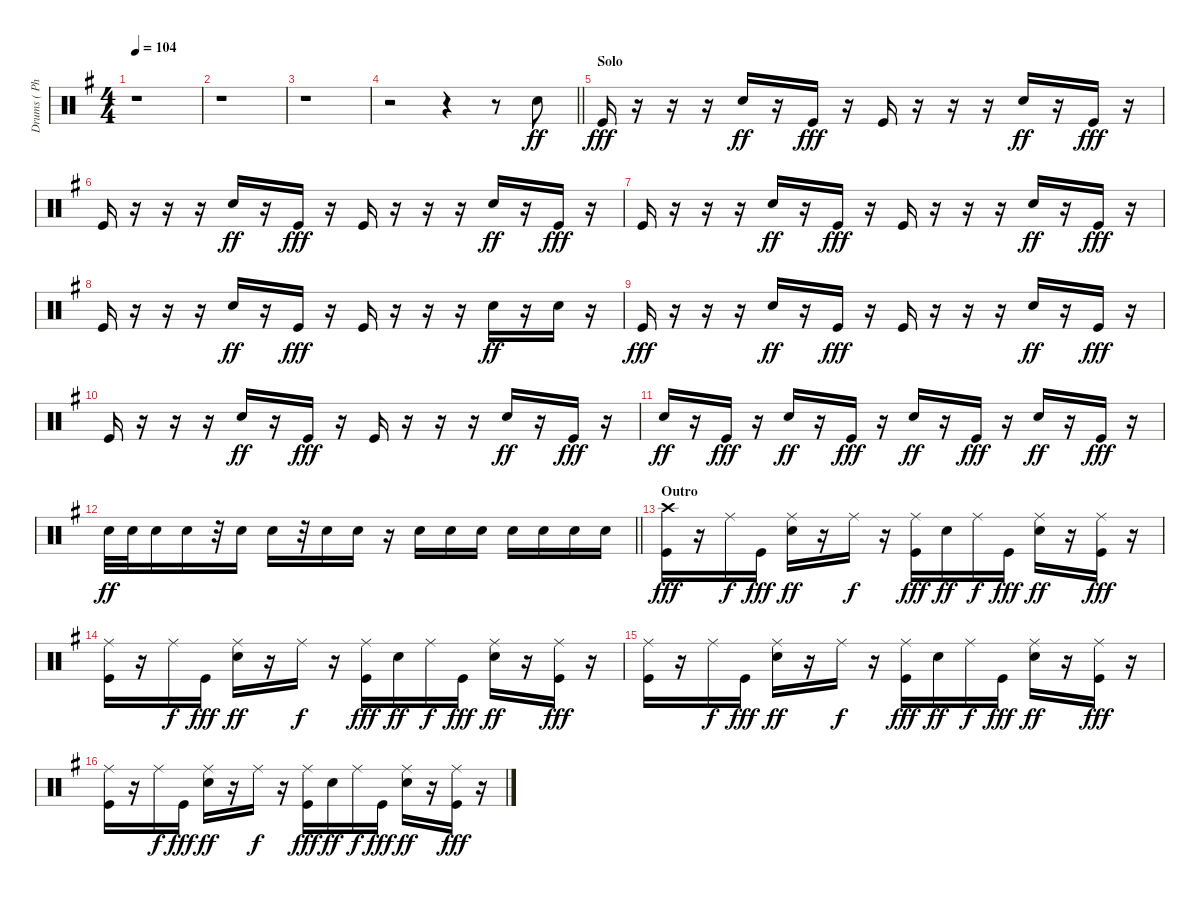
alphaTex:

\track ("Drums ( Phillip Selway )" "Drums ( Ph") {instrument percussion}
\staff {score}
\articulation defaults
\ts (4 4)
\tempo 104
\clef neutral
\ks eminor
r.1{dy fff} |
r.1 |
r.1 |
\barLineRight lightlight
r.2 r.4 r.8 "Electric Snare (hit)".8{dy ff} |
\section ("" "Solo")
"Kick (hit)".16{dy fff} r.16 r.16 r.16 "Electric Snare (hit)".16{dy ff} r.16 "Kick (hit)".16{dy fff} r.16 "Kick (hit)".16 r.16 r.16 r.16 "Electric Snare (hit)".16{dy ff} r.16 "Kick (hit)".16{dy fff} r.16 |
"Kick (hit)".16 r.16 r.16 r.16 "Electric Snare (hit)".16{dy ff} r.16 "Kick (hit)".16{dy fff} r.16 "Kick (hit)".16 r.16 r.16 r.16 "Electric Snare (hit)".16{dy ff} r.16 "Kick (hit)".16{dy fff} r.16 |
"Kick (hit)".16 r.16 r.16 r.16 "Electric Snare (hit)".16{dy ff} r.16 "Kick (hit)".16{dy fff} r.16 "Kick (hit)".16 r.16 r.16 r.16 "Electric Snare (hit)".16{dy ff} r.16 "Kick (hit)".16{dy fff} r.16 |
"Kick (hit)".16 r.16 r.16 r.16 "Electric Snare (hit)".16{dy ff} r.16 "Kick (hit)".16{dy fff} r.16 "Kick (hit)".16 r.16 r.16 r.16 "Electric Snare (hit)".16{dy ff} r.16 "Electric Snare (hit)".16 r.16 |
"Kick (hit)".16{dy fff} r.16 r.16 r.16 "Electric Snare (hit)".16{dy ff} r.16 "Kick (hit)".16{dy fff} r.16 "Kick (hit)".16 r.16 r.16 r.16 "Electric Snare (hit)".16{dy ff} r.16 "Kick (hit)".16{dy fff} r.16 |
"Kick (hit)".16 r.16 r.16 r.16 "Electric Snare (hit)".16{dy ff} r.16 "Kick (hit)".16{dy fff} r.16 "Kick (hit)".16 r.16 r.16 r.16 "Electric Snare (hit)".16{dy ff} r.16 "Kick (hit)".16{dy fff} r.16 |
"Electric Snare (hit)".16{dy ff} r.16 "Kick (hit)".16{dy fff} r.16 "Electric Snare (hit)".16{dy ff} r.16 "Kick (hit)".16{dy fff} r.16 "Electric Snare (hit)".16{dy ff} r.16 "Kick (hit)".16{dy fff} r.16 "Electric Snare (hit)".16{dy ff} r.16 "Kick (hit)".16{dy fff} r.16 |
\barLineRight lightlight "Electric Snare (hit)".32{dy ff} "Electric Snare (hit)".32 "Electric Snare (hit)".16 "Electric Snare (hit)".16
r.32 "Electric Snare (hit)".16 "Electric Snare (hit)".16 r.32 "Electric Snare (hit)".16 "Electric Snare (hit)".16 r.16 "Electric Snare (hit)".16 "Electric Snare (hit)".16 "Electric Snare (hit)".16 "Electric Snare (hit)".16 "Electric Snare (hit)".16 "Electric Snare (hit)".16 "Electric Snare (hit)".16 |
\section ("" "Outro")
("Crash high (hit)" "Kick (hit)").16{dy fff} r.16 "Ride (middle)".16{dy f} "Kick (hit)".16{dy fff} ("Ride (middle)" "Electric Snare (hit)").16{dy ff} r.16 "Ride (middle)".16{dy f} r.16 ("Ride (middle)" "Kick (hit)").16{dy fff} "Electric Snare (hit)".16{dy ff} "Ride (middle)".16{dy f} "Kick (hit)".16{dy fff} ("Ride (middle)" "Electric Snare (hit)").16{dy ff} r.16 ("Ride (middle)" "Kick (hit)").16{dy fff} r.16 |
("Ride (middle)" "Kick (hit)").16 r.16 "Ride (middle)".16{dy f} "Kick (hit)".16{dy fff} ("Ride (middle)" "Electric Snare (hit)").16{dy ff} r.16 "Ride (middle)".16{dy f} r.16 ("Ride (middle)" "Kick (hit)").16{dy fff} "Electric Snare (hit)".16{dy ff} "Ride (middle)".16{dy f} "Kick (hit)".16{dy fff} ("Ride (middle)" "Electric Snare (hit)").16{dy ff} r.16 ("Ride (middle)" "Kick (hit)").16{dy fff} r.16 |
("Ride (middle)" "Kick (hit)").16 r.16 "Ride (middle)".16{dy f} "Kick (hit)".16{dy fff} ("Ride (middle)" "Electric Snare (hit)").16{dy ff} r.16 "Ride (middle)".16{dy f} r.16 ("Ride (middle)" "Kick (hit)").16{dy fff} "Electric Snare (hit)".16{dy ff} "Ride (middle)".16{dy f} "Kick (hit)".16{dy fff} ("Ride (middle)" "Electric Snare (hit)").16{dy ff} r.16 ("Ride (middle)" "Kick (hit)").16{dy fff} r.16 |
("Ride (middle)" "Kick (hit)").16 r.16 "Ride (middle)".16{dy f} "Kick (hit)".16{dy fff} ("Ride (middle)" "Electric Snare (hit)").16{dy ff} r.16 "Ride (middle)".16{dy f} r.16 ("Ride (middle)" "Kick (hit)").16{dy fff} "Electric Snare (hit)".16{dy ff} "Ride (middle)".16{dy f} "Kick (hit)".16{dy fff} ("Ride (middle)" "Electric Snare (hit)").16{dy ff} r.16 ("Ride (middle)" "Kick (hit)").16{dy fff} r.16
